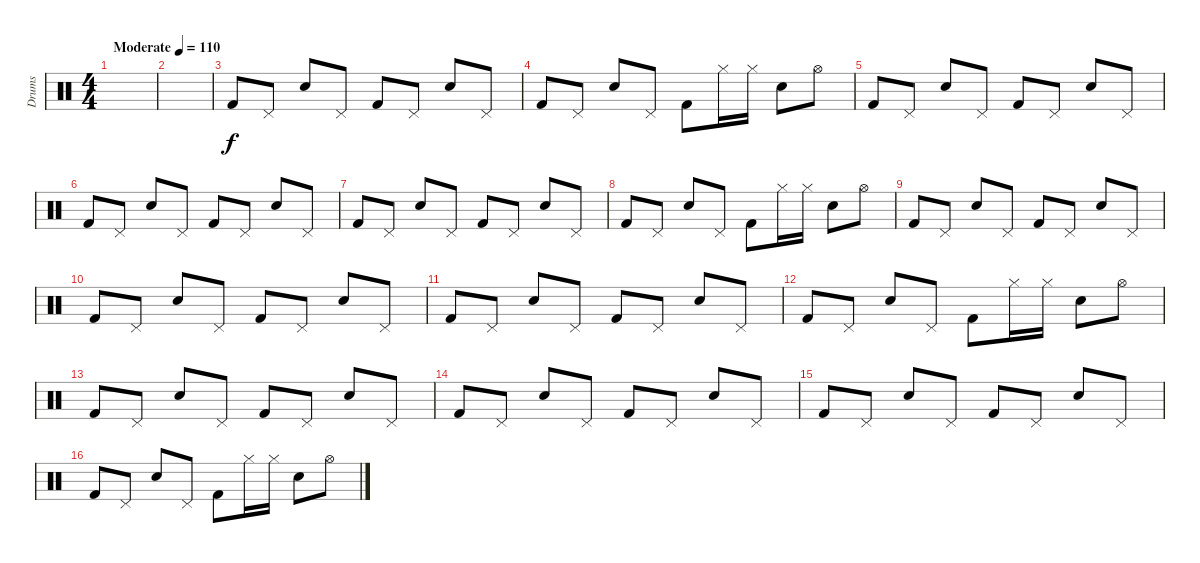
\track ("Drums" "Drums") {instrument percussion}
\staff {score}
\articulation defaults
\ts (4 4)
\tempo (110 "Moderate")
\clef neutral
\ks c
|
|
"Kick (hit) 2".8 "Pedal Hi-Hat (hit)".8 "Snare (hit) 2".8 "Pedal Hi-Hat (hit)".8 "Kick (hit) 2".8 "Pedal Hi-Hat (hit)".8 "Snare (hit) 2".8 "Pedal Hi-Hat (hit)".8 |
"Kick (hit) 2".8 "Pedal Hi-Hat (hit)".8 "Snare (hit) 2".8 "Pedal Hi-Hat (hit)".8 "Kick (hit) 2".8 "Hi-Hat (closed)".16 "Hi-Hat (closed)".16 "Snare (hit) 2".8 "Hi-Hat (open)".8 |
"Kick (hit) 2".8 "Pedal Hi-Hat (hit)".8 "Snare (hit) 2".8 "Pedal Hi-Hat (hit)".8 "Kick (hit) 2".8 "Pedal Hi-Hat (hit)".8 "Snare (hit) 2".8 "Pedal Hi-Hat (hit)".8 |
"Kick (hit) 2".8 "Pedal Hi-Hat (hit)".8 "Snare (hit) 2".8 "Pedal Hi-Hat (hit)".8 "Kick (hit) 2".8 "Pedal Hi-Hat (hit)".8 "Snare (hit) 2".8 "Pedal Hi-Hat (hit)".8 |
"Kick (hit) 2".8 "Pedal Hi-Hat (hit)".8 "Snare (hit) 2".8 "Pedal Hi-Hat (hit)".8 "Kick (hit) 2".8 "Pedal Hi-Hat (hit)".8 "Snare (hit) 2".8 "Pedal Hi-Hat (hit)".8 |
"Kick (hit) 2".8 "Pedal Hi-Hat (hit)".8 "Snare (hit) 2".8 "Pedal Hi-Hat (hit)".8 "Kick (hit) 2".8 "Hi-Hat (closed)".16 "Hi-Hat (closed)".16 "Snare (hit) 2".8 "Hi-Hat (open)".8 |
"Kick (hit) 2".8 "Pedal Hi-Hat (hit)".8 "Snare (hit) 2".8 "Pedal Hi-Hat (hit)".8 "Kick (hit) 2".8 "Pedal Hi-Hat (hit)".8 "Snare (hit) 2".8 "Pedal Hi-Hat (hit)".8 |
"Kick (hit) 2".8 "Pedal Hi-Hat (hit)".8 "Snare (hit) 2".8 "Pedal Hi-Hat (hit)".8 "Kick (hit) 2".8 "Pedal Hi-Hat (hit)".8 "Snare (hit) 2".8 "Pedal Hi-Hat (hit)".8 |
"Kick (hit) 2".8 "Pedal Hi-Hat (hit)".8 "Snare (hit) 2".8 "Pedal Hi-Hat (hit)".8 "Kick (hit) 2".8 "Pedal Hi-Hat (hit)".8 "Snare (hit) 2".8 "Pedal Hi-Hat (hit)".8 |
"Kick (hit) 2".8 "Pedal Hi-Hat (hit)".8 "Snare (hit) 2".8 "Pedal Hi-Hat (hit)".8 "Kick (hit) 2".8 "Hi-Hat (closed)".16 "Hi-Hat (closed)".16 "Snare (hit) 2".8 "Hi-Hat (open)".8 |
"Kick (hit) 2".8 "Pedal Hi-Hat (hit)".8 "Snare (hit) 2".8 "Pedal Hi-Hat (hit)".8 "Kick (hit) 2".8 "Pedal Hi-Hat (hit)".8 "Snare (hit) 2".8 "Pedal Hi-Hat (hit)".8 |
"Kick (hit) 2".8 "Pedal Hi-Hat (hit)".8 "Snare (hit) 2".8 "Pedal Hi-Hat (hit)".8 "Kick (hit) 2".8 "Pedal Hi-Hat (hit)".8 "Snare (hit) 2".8 "Pedal Hi-Hat (hit)".8 |
"Kick (hit) 2".8 "Pedal Hi-Hat (hit)".8 "Snare (hit) 2".8 "Pedal Hi-Hat (hit)".8 "Kick (hit) 2".8 "Pedal Hi-Hat (hit)".8 "Snare (hit) 2".8 "Pedal Hi-Hat (hit)".8 |
"Kick (hit) 2".8 "Pedal Hi-Hat (hit)".8 "Snare (hit) 2".8 "Pedal Hi-Hat (hit)".8 "Kick (hit) 2".8 "Hi-Hat (closed)".16 "Hi-Hat (closed)".16 "Snare (hit) 2".8 "Hi-Hat (open)".8
